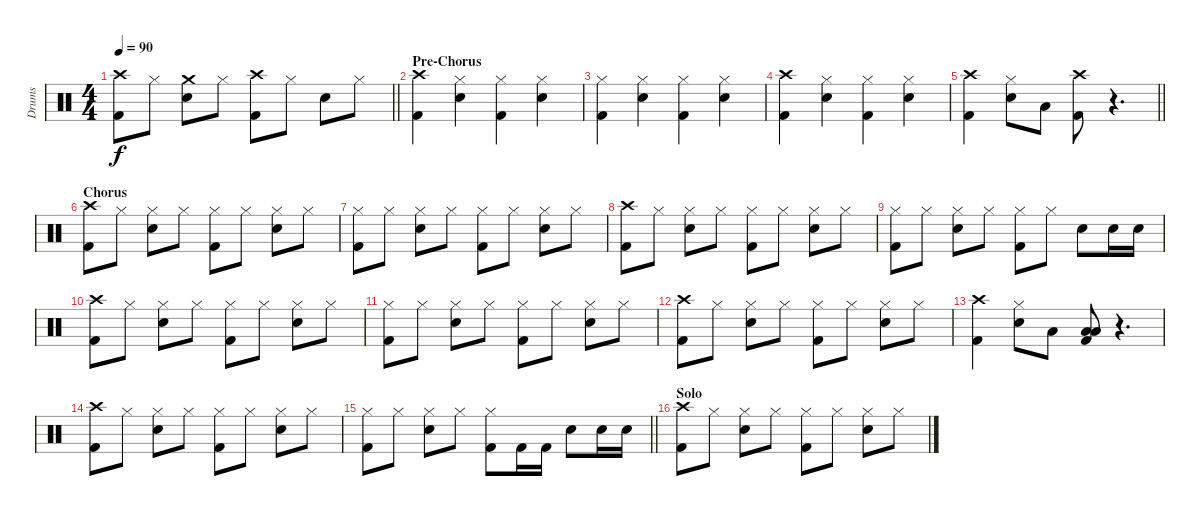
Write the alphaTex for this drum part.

\track ("Drums" "Drums") {instrument percussion}
\staff {score}
\articulation defaults
\ts (4 4)
\tempo 90
\clef neutral
\barLineRight lightlight
\ks c
("Crash high (hit)" "Kick (hit) 2").8{dy f} "Hi-Hat (closed)".8 ("Crash medium (hit)" "Snare (hit) 2").8 "Hi-Hat (closed)".8 ("Crash high (hit)" "Kick (hit) 2").8 "Hi-Hat (closed)".8 "Snare (hit) 2".8 "Hi-Hat (closed)".8 |
\section ("" "Pre-Chorus")
("Crash high (hit)" "Kick (hit) 2").4 ("Hi-Hat (closed)" "Snare (hit) 2").4 ("Hi-Hat (closed)" "Kick (hit) 2").4 ("Hi-Hat (closed)" "Snare (hit) 2").4 |
("Hi-Hat (closed)" "Kick (hit) 2").4 ("Hi-Hat (closed)" "Snare (hit) 2").4 ("Hi-Hat (closed)" "Kick (hit) 2").4 ("Hi-Hat (closed)" "Snare (hit) 2").4 |
("Crash high (hit)" "Kick (hit) 2").4 ("Hi-Hat (closed)" "Snare (hit) 2").4 ("Hi-Hat (closed)" "Kick (hit) 2").4 ("Hi-Hat (closed)" "Snare (hit) 2").4 |
\barLineRight lightlight
("Crash high (hit)" "Kick (hit) 2").4 ("Hi-Hat (closed)" "Snare (hit) 2").8 "Low Tom (hit)".8 ("Crash high (hit)" "Kick (hit) 2").8 r.4{d} |
\section ("" "Chorus")
("Crash high (hit)" "Kick (hit) 2").8 "Hi-Hat (closed)".8 ("Hi-Hat (closed)" "Snare (hit) 2").8 "Hi-Hat (closed)".8 ("Hi-Hat (closed)" "Kick (hit) 2").8 "Hi-Hat (closed)".8 ("Hi-Hat (closed)" "Snare (hit) 2").8 "Hi-Hat (closed)".8 |
("Hi-Hat (closed)" "Kick (hit) 2").8 "Hi-Hat (closed)".8 ("Hi-Hat (closed)" "Snare (hit) 2").8 "Hi-Hat (closed)".8 ("Hi-Hat (closed)" "Kick (hit) 2").8 "Hi-Hat (closed)".8 ("Hi-Hat (closed)" "Snare (hit) 2").8 "Hi-Hat (closed)".8 |
("Crash high (hit)" "Kick (hit) 2").8 "Hi-Hat (closed)".8 ("Hi-Hat (closed)" "Snare (hit) 2").8 "Hi-Hat (closed)".8 ("Hi-Hat (closed)" "Kick (hit) 2").8 "Hi-Hat (closed)".8 ("Hi-Hat (closed)" "Snare (hit) 2").8 "Hi-Hat (closed)".8 |
("Hi-Hat (closed)" "Kick (hit) 2").8 "Hi-Hat (closed)".8 ("Hi-Hat (closed)" "Snare (hit) 2").8 "Hi-Hat (closed)".8 ("Hi-Hat (closed)" "Kick (hit) 2").8 "Hi-Hat (closed)".8 "Snare (hit) 2".8 "Snare (hit) 2".16 "Snare (hit) 2".16 |
("Crash high (hit)" "Kick (hit) 2").8 "Hi-Hat (closed)".8 ("Hi-Hat (closed)" "Snare (hit) 2").8 "Hi-Hat (closed)".8 ("Hi-Hat (closed)" "Kick (hit) 2").8 "Hi-Hat (closed)".8 ("Hi-Hat (closed)" "Snare (hit) 2").8 "Hi-Hat (closed)".8 |
("Hi-Hat (closed)" "Kick (hit) 2").8 "Hi-Hat (closed)".8 ("Hi-Hat (closed)" "Snare (hit) 2").8 "Hi-Hat (closed)".8 ("Hi-Hat (closed)" "Kick (hit) 2").8 "Hi-Hat (closed)".8 ("Hi-Hat (closed)" "Snare (hit) 2").8 "Hi-Hat (closed)".8 |
("Crash high (hit)" "Kick (hit) 2").8 "Hi-Hat (closed)".8 ("Hi-Hat (closed)" "Snare (hit) 2").8 "Hi-Hat (closed)".8 ("Hi-Hat (closed)" "Kick (hit) 2").8 "Hi-Hat (closed)".8 ("Hi-Hat (closed)" "Snare (hit) 2").8 "Hi-Hat (closed)".8 |
("Crash high (hit)" "Kick (hit) 2").4 ("Hi-Hat (closed)" "Snare (hit) 2").8 "Low Tom (hit)".8 ("Low Tom (hit)" "Low Floor Tom (hit)" "Kick (hit) 2").8 r.4{d} |
("Crash high (hit)" "Kick (hit) 2").8 "Hi-Hat (closed)".8 ("Hi-Hat (closed)" "Snare (hit) 2").8 "Hi-Hat (closed)".8 ("Hi-Hat (closed)" "Kick (hit) 2").8 "Hi-Hat (closed)".8 ("Hi-Hat (closed)" "Snare (hit) 2").8 "Hi-Hat (closed)".8 |
\barLineRight lightlight
("Hi-Hat (closed)" "Kick (hit) 2").8 "Hi-Hat (closed)".8 ("Hi-Hat (closed)" "Snare (hit) 2").8 "Hi-Hat (closed)".8 ("Hi-Hat (closed)" "Kick (hit) 2").8 "Kick (hit) 2".16 "Kick (hit) 2".16 "Snare (hit) 2".8 "Snare (hit) 2".16 "Snare (hit) 2".16 |
\section ("" "Solo")
("Crash high (hit)" "Kick (hit) 2").8 "Hi-Hat (closed)".8 ("Hi-Hat (closed)" "Snare (hit) 2").8 "Hi-Hat (closed)".8 ("Hi-Hat (closed)" "Kick (hit) 2").8 "Hi-Hat (closed)".8 ("Hi-Hat (closed)" "Snare (hit) 2").8 "Hi-Hat (closed)".8
